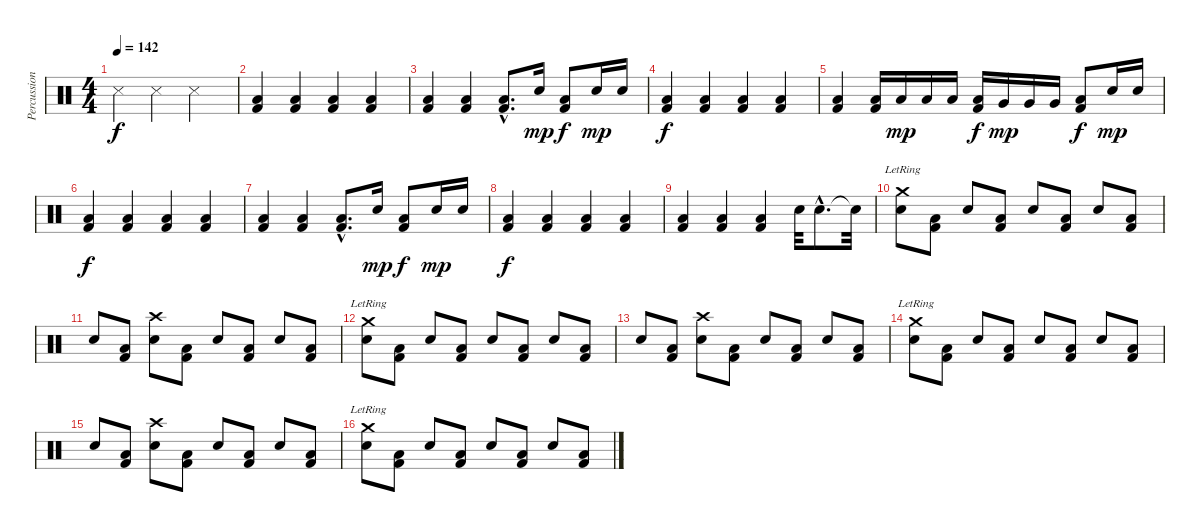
\track ("Percussions" "Percussion") {instrument percussion}
\staff {score}
\articulation defaults
\ts (4 4)
\tempo 142
\clef neutral
\ks c "Metronome (hit)".4{dy f} "Metronome (hit)".4 "Metronome (hit)".2
|
("Kick (hit) 2" "Low Floor Tom (hit)").4 ("Kick (hit) 2" "Low Floor Tom (hit)").4 ("Kick (hit) 2" "Low Floor Tom (hit)").4 ("Kick (hit) 2" "Low Floor Tom (hit)").4 |
("Kick (hit) 2" "Low Floor Tom (hit)").4 ("Kick (hit) 2" "Low Floor Tom (hit)").4 ("Kick (hit) 2"{hac} "Low Floor Tom (hit)"{hac}).8{d} "Electric Snare (hit)".16{dy mp} ("Kick (hit) 2" "Low Floor Tom (hit)").8{dy f} "Electric Snare (hit)".16{dy mp} "Electric Snare (hit)".16 |
("Kick (hit) 2" "Low Floor Tom (hit)").4{dy f} ("Kick (hit) 2" "Low Floor Tom (hit)").4 ("Kick (hit) 2" "Low Floor Tom (hit)").4 ("Kick (hit) 2" "Low Floor Tom (hit)").4 |
("Kick (hit) 2" "Low Floor Tom (hit)").4 ("Kick (hit) 2" "Low Floor Tom (hit)").16 "Low Tom (hit)".16{dy mp} "Low Tom (hit)".16 "Low Tom (hit)".16 ("Kick (hit) 2" "Low Floor Tom (hit)").16{dy f} "Very Low Tom (hit)".16{dy mp} "Very Low Tom (hit)".16 "Very Low Tom (hit)".16 ("Kick (hit) 2" "Low Floor Tom (hit)").8{dy f} "Electric Snare (hit)".16{dy mp} "Electric Snare (hit)".16 |
("Kick (hit) 2" "Low Floor Tom (hit)").4{dy f} ("Kick (hit) 2" "Low Floor Tom (hit)").4 ("Kick (hit) 2" "Low Floor Tom (hit)").4 ("Kick (hit) 2" "Low Floor Tom (hit)").4 |
("Kick (hit) 2" "Low Floor Tom (hit)").4 ("Kick (hit) 2" "Low Floor Tom (hit)").4 ("Kick (hit) 2"{hac} "Low Floor Tom (hit)"{hac}).8{d} "Electric Snare (hit)".16{dy mp} ("Kick (hit) 2" "Low Floor Tom (hit)").8{dy f} "Electric Snare (hit)".16{dy mp} "Electric Snare (hit)".16 |
("Kick (hit) 2" "Low Floor Tom (hit)").4{dy f} ("Kick (hit) 2" "Low Floor Tom (hit)").4 ("Kick (hit) 2" "Low Floor Tom (hit)").4 ("Kick (hit) 2" "Low Floor Tom (hit)").4 |
("Kick (hit) 2" "Low Floor Tom (hit)").4 ("Kick (hit) 2" "Low Floor Tom (hit)").4 ("Kick (hit) 2" "Low Floor Tom (hit)").4 "Electric Snare (hit)".32 "Electric Snare (hit)"{hac}.8{d} "Snare (hit)"{t}.32 |
("Electric Snare (hit)" "Crash medium (hit)"{lr}).8 ("Kick (hit) 2" "Low Floor Tom (hit)").8 "Electric Snare (hit)".8 ("Kick (hit) 2" "Low Floor Tom (hit)").8 "Electric Snare (hit)".8 ("Kick (hit) 2" "Low Floor Tom (hit)").8 "Electric Snare (hit)".8 ("Kick (hit) 2" "Low Floor Tom (hit)").8 |
"Electric Snare (hit)".8 ("Kick (hit) 2" "Low Floor Tom (hit)").8 ("Electric Snare (hit)" "Crash high (hit)").8 ("Kick (hit) 2" "Low Floor Tom (hit)").8 "Electric Snare (hit)".8 ("Kick (hit) 2" "Low Floor Tom (hit)").8 "Electric Snare (hit)".8 ("Kick (hit) 2" "Low Floor Tom (hit)").8 |
("Electric Snare (hit)" "Crash medium (hit)"{lr}).8 ("Kick (hit) 2" "Low Floor Tom (hit)").8 "Electric Snare (hit)".8 ("Kick (hit) 2" "Low Floor Tom (hit)").8 "Electric Snare (hit)".8 ("Kick (hit) 2" "Low Floor Tom (hit)").8 "Electric Snare (hit)".8 ("Kick (hit) 2" "Low Floor Tom (hit)").8 |
"Electric Snare (hit)".8 ("Kick (hit) 2" "Low Floor Tom (hit)").8 ("Electric Snare (hit)" "Crash high (hit)").8 ("Kick (hit) 2" "Low Floor Tom (hit)").8 "Electric Snare (hit)".8 ("Kick (hit) 2" "Low Floor Tom (hit)").8 "Electric Snare (hit)".8 ("Kick (hit) 2" "Low Floor Tom (hit)").8 |
("Electric Snare (hit)" "Crash medium (hit)"{lr}).8 ("Kick (hit) 2" "Low Floor Tom (hit)").8 "Electric Snare (hit)".8 ("Kick (hit) 2" "Low Floor Tom (hit)").8 "Electric Snare (hit)".8 ("Kick (hit) 2" "Low Floor Tom (hit)").8 "Electric Snare (hit)".8 ("Kick (hit) 2" "Low Floor Tom (hit)").8 |
"Electric Snare (hit)".8 ("Kick (hit) 2" "Low Floor Tom (hit)").8 ("Electric Snare (hit)" "Crash high (hit)").8 ("Kick (hit) 2" "Low Floor Tom (hit)").8 "Electric Snare (hit)".8 ("Kick (hit) 2" "Low Floor Tom (hit)").8 "Electric Snare (hit)".8 ("Kick (hit) 2" "Low Floor Tom (hit)").8 |
("Electric Snare (hit)" "Crash medium (hit)"{lr}).8 ("Kick (hit) 2" "Low Floor Tom (hit)").8 "Electric Snare (hit)".8 ("Kick (hit) 2" "Low Floor Tom (hit)").8 "Electric Snare (hit)".8 ("Kick (hit) 2" "Low Floor Tom (hit)").8 "Electric Snare (hit)".8 ("Kick (hit) 2" "Low Floor Tom (hit)").8
